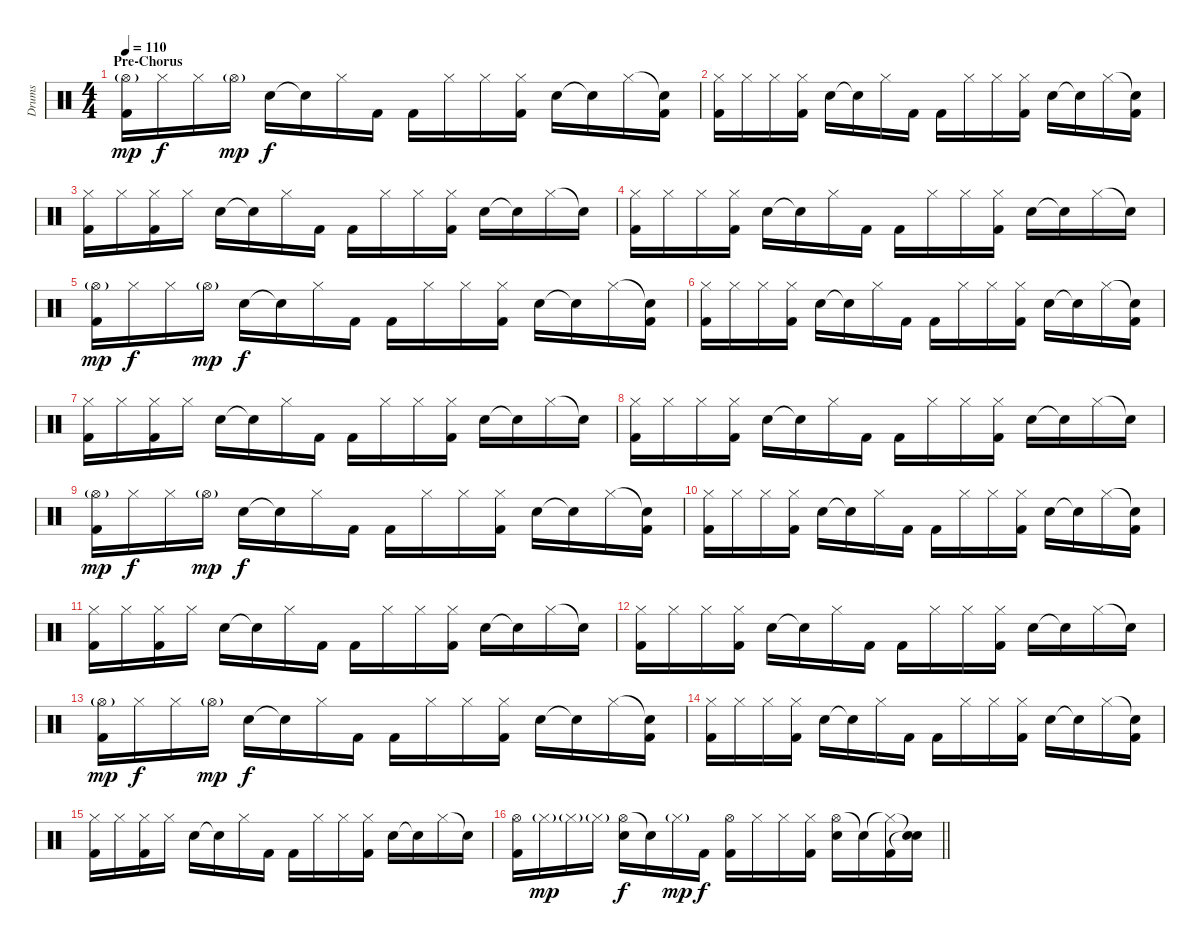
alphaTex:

\track ("Drums" "Drums") {instrument percussion}
\staff {score}
\articulation defaults
\ts (4 4)
\section ("" "Pre-Chorus")
\tempo 110
\clef neutral
\ks c
("Hi-Hat (open)"{g} "Kick (hit) 2").16{dy mp} "Hi-Hat (closed)".16{dy f} "Hi-Hat (closed)".16 "Hi-Hat (open)"{g}.16{dy mp} "Electric Snare (hit)".16{dy f} "Snare (hit)"{t}.16 "Hi-Hat (closed)".16 "Kick (hit) 2".16 "Kick (hit) 2".16 "Hi-Hat (closed)".16 "Hi-Hat (closed)".16 ("Hi-Hat (closed)" "Kick (hit) 2").16 "Electric Snare (hit)".16 "Snare (hit)"{t}.16 "Hi-Hat (closed)".16 ("Snare (hit)"{t} "Kick (hit) 2").16 |
("Hi-Hat (closed)" "Kick (hit) 2").16 "Hi-Hat (closed)".16 "Hi-Hat (closed)".16 ("Hi-Hat (closed)" "Kick (hit) 2").16 "Electric Snare (hit)".16 "Snare (hit)"{t}.16 "Hi-Hat (closed)".16 "Kick (hit) 2".16 "Kick (hit) 2".16 "Hi-Hat (closed)".16 "Hi-Hat (closed)".16 ("Hi-Hat (closed)" "Kick (hit) 2").16 "Electric Snare (hit)".16 "Snare (hit)"{t}.16 "Hi-Hat (closed)".16 ("Snare (hit)"{t} "Kick (hit) 2").16 |
("Hi-Hat (closed)" "Kick (hit) 2").16 "Hi-Hat (closed)".16 ("Hi-Hat (closed)" "Kick (hit) 2").16 "Hi-Hat (closed)".16 "Electric Snare (hit)".16 "Snare (hit)"{t}.16 "Hi-Hat (closed)".16 "Kick (hit) 2".16 "Kick (hit) 2".16 "Hi-Hat (closed)".16 "Hi-Hat (closed)".16 ("Hi-Hat (closed)" "Kick (hit) 2").16 "Electric Snare (hit)".16 "Snare (hit)"{t}.16 "Hi-Hat (closed)".16 "Snare (hit)"{t}.16 |
("Hi-Hat (closed)" "Kick (hit) 2").16 "Hi-Hat (closed)".16 "Hi-Hat (closed)".16 ("Hi-Hat (closed)" "Kick (hit) 2").16 "Electric Snare (hit)".16 "Snare (hit)"{t}.16 "Hi-Hat (closed)".16 "Kick (hit) 2".16 "Kick (hit) 2".16 "Hi-Hat (closed)".16 "Hi-Hat (closed)".16 ("Hi-Hat (closed)" "Kick (hit) 2").16 "Electric Snare (hit)".16 "Snare (hit)"{t}.16 "Hi-Hat (closed)".16 "Snare (hit)"{t}.16 |
("Hi-Hat (open)"{g} "Kick (hit) 2").16{dy mp} "Hi-Hat (closed)".16{dy f} "Hi-Hat (closed)".16 "Hi-Hat (open)"{g}.16{dy mp} "Electric Snare (hit)".16{dy f} "Snare (hit)"{t}.16 "Hi-Hat (closed)".16 "Kick (hit) 2".16 "Kick (hit) 2".16 "Hi-Hat (closed)".16 "Hi-Hat (closed)".16 ("Hi-Hat (closed)" "Kick (hit) 2").16 "Electric Snare (hit)".16 "Snare (hit)"{t}.16 "Hi-Hat (closed)".16 ("Snare (hit)"{t} "Kick (hit) 2").16 |
("Hi-Hat (closed)" "Kick (hit) 2").16 "Hi-Hat (closed)".16 "Hi-Hat (closed)".16 ("Hi-Hat (closed)" "Kick (hit) 2").16 "Electric Snare (hit)".16 "Snare (hit)"{t}.16 "Hi-Hat (closed)".16 "Kick (hit) 2".16 "Kick (hit) 2".16 "Hi-Hat (closed)".16 "Hi-Hat (closed)".16 ("Hi-Hat (closed)" "Kick (hit) 2").16 "Electric Snare (hit)".16 "Snare (hit)"{t}.16 "Hi-Hat (closed)".16 ("Snare (hit)"{t} "Kick (hit) 2").16 |
("Hi-Hat (closed)" "Kick (hit) 2").16 "Hi-Hat (closed)".16 ("Hi-Hat (closed)" "Kick (hit) 2").16 "Hi-Hat (closed)".16 "Electric Snare (hit)".16 "Snare (hit)"{t}.16 "Hi-Hat (closed)".16 "Kick (hit) 2".16 "Kick (hit) 2".16 "Hi-Hat (closed)".16 "Hi-Hat (closed)".16 ("Hi-Hat (closed)" "Kick (hit) 2").16 "Electric Snare (hit)".16 "Snare (hit)"{t}.16 "Hi-Hat (closed)".16 "Snare (hit)"{t}.16 |
("Hi-Hat (closed)" "Kick (hit) 2").16 "Hi-Hat (closed)".16 "Hi-Hat (closed)".16 ("Hi-Hat (closed)" "Kick (hit) 2").16 "Electric Snare (hit)".16 "Snare (hit)"{t}.16 "Hi-Hat (closed)".16 "Kick (hit) 2".16 "Kick (hit) 2".16 "Hi-Hat (closed)".16 "Hi-Hat (closed)".16 ("Hi-Hat (closed)" "Kick (hit) 2").16 "Electric Snare (hit)".16 "Snare (hit)"{t}.16 "Hi-Hat (closed)".16 "Snare (hit)"{t}.16 |
("Hi-Hat (open)"{g} "Kick (hit) 2").16{dy mp} "Hi-Hat (closed)".16{dy f} "Hi-Hat (closed)".16 "Hi-Hat (open)"{g}.16{dy mp} "Electric Snare (hit)".16{dy f} "Snare (hit)"{t}.16 "Hi-Hat (closed)".16 "Kick (hit) 2".16 "Kick (hit) 2".16 "Hi-Hat (closed)".16 "Hi-Hat (closed)".16 ("Hi-Hat (closed)" "Kick (hit) 2").16 "Electric Snare (hit)".16 "Snare (hit)"{t}.16 "Hi-Hat (closed)".16 ("Snare (hit)"{t} "Kick (hit) 2").16 |
("Hi-Hat (closed)" "Kick (hit) 2").16 "Hi-Hat (closed)".16 "Hi-Hat (closed)".16 ("Hi-Hat (closed)" "Kick (hit) 2").16 "Electric Snare (hit)".16 "Snare (hit)"{t}.16 "Hi-Hat (closed)".16 "Kick (hit) 2".16 "Kick (hit) 2".16 "Hi-Hat (closed)".16 "Hi-Hat (closed)".16 ("Hi-Hat (closed)" "Kick (hit) 2").16 "Electric Snare (hit)".16 "Snare (hit)"{t}.16 "Hi-Hat (closed)".16 ("Snare (hit)"{t} "Kick (hit) 2").16 |
("Hi-Hat (closed)" "Kick (hit) 2").16 "Hi-Hat (closed)".16 ("Hi-Hat (closed)" "Kick (hit) 2").16 "Hi-Hat (closed)".16 "Electric Snare (hit)".16 "Snare (hit)"{t}.16 "Hi-Hat (closed)".16 "Kick (hit) 2".16 "Kick (hit) 2".16 "Hi-Hat (closed)".16 "Hi-Hat (closed)".16 ("Hi-Hat (closed)" "Kick (hit) 2").16 "Electric Snare (hit)".16 "Snare (hit)"{t}.16 "Hi-Hat (closed)".16 "Snare (hit)"{t}.16 |
("Hi-Hat (closed)" "Kick (hit) 2").16 "Hi-Hat (closed)".16 "Hi-Hat (closed)".16 ("Hi-Hat (closed)" "Kick (hit) 2").16 "Electric Snare (hit)".16 "Snare (hit)"{t}.16 "Hi-Hat (closed)".16 "Kick (hit) 2".16 "Kick (hit) 2".16 "Hi-Hat (closed)".16 "Hi-Hat (closed)".16 ("Hi-Hat (closed)" "Kick (hit) 2").16 "Electric Snare (hit)".16 "Snare (hit)"{t}.16 "Hi-Hat (closed)".16 "Snare (hit)"{t}.16 |
("Hi-Hat (open)"{g} "Kick (hit) 2").16{dy mp} "Hi-Hat (closed)".16{dy f} "Hi-Hat (closed)".16 "Hi-Hat (open)"{g}.16{dy mp} "Electric Snare (hit)".16{dy f} "Snare (hit)"{t}.16 "Hi-Hat (closed)".16 "Kick (hit) 2".16 "Kick (hit) 2".16 "Hi-Hat (closed)".16 "Hi-Hat (closed)".16 ("Hi-Hat (closed)" "Kick (hit) 2").16 "Electric Snare (hit)".16 "Snare (hit)"{t}.16 "Hi-Hat (closed)".16 ("Snare (hit)"{t} "Kick (hit) 2").16 |
("Hi-Hat (closed)" "Kick (hit) 2").16 "Hi-Hat (closed)".16 "Hi-Hat (closed)".16 ("Hi-Hat (closed)" "Kick (hit) 2").16 "Electric Snare (hit)".16 "Snare (hit)"{t}.16 "Hi-Hat (closed)".16 "Kick (hit) 2".16 "Kick (hit) 2".16 "Hi-Hat (closed)".16 "Hi-Hat (closed)".16 ("Hi-Hat (closed)" "Kick (hit) 2").16 "Electric Snare (hit)".16 "Snare (hit)"{t}.16 "Hi-Hat (closed)".16 ("Snare (hit)"{t} "Kick (hit) 2").16 |
("Hi-Hat (closed)" "Kick (hit) 2").16 "Hi-Hat (closed)".16 ("Hi-Hat (closed)" "Kick (hit) 2").16 "Hi-Hat (closed)".16 "Electric Snare (hit)".16 "Snare (hit)"{t}.16 "Hi-Hat (closed)".16 "Kick (hit) 2".16 "Kick (hit) 2".16 "Hi-Hat (closed)".16 "Hi-Hat (closed)".16 ("Hi-Hat (closed)" "Kick (hit) 2").16 "Electric Snare (hit)".16 "Snare (hit)"{t}.16 "Hi-Hat (closed)".16 "Snare (hit)"{t}.16 |
\barLineRight lightlight
("Hi-Hat (open)" "Kick (hit) 2").16 "Hi-Hat (closed)"{g}.16{dy mp} "Hi-Hat (closed)"{g}.16 "Hi-Hat (closed)"{g}.16 ("Hi-Hat (open)" "Electric Snare (hit)").16{dy f} "Snare (hit)"{t}.16 "Hi-Hat (closed)"{g}.16{dy mp} "Kick (hit) 2".16{dy f} ("Hi-Hat (open)" "Kick (hit) 2").16 "Hi-Hat (closed)".16 "Hi-Hat (closed)".16 ("Hi-Hat (closed)" "Kick (hit) 2").16 ("Hi-Hat (open)" "Electric Snare (hit)").16 "Snare (hit)"{t}.16 ("Hi-Hat (closed)"{t} "Kick (hit) 2").16 ("Snare (hit)"{t} "Snare (hit)"{t}).16
